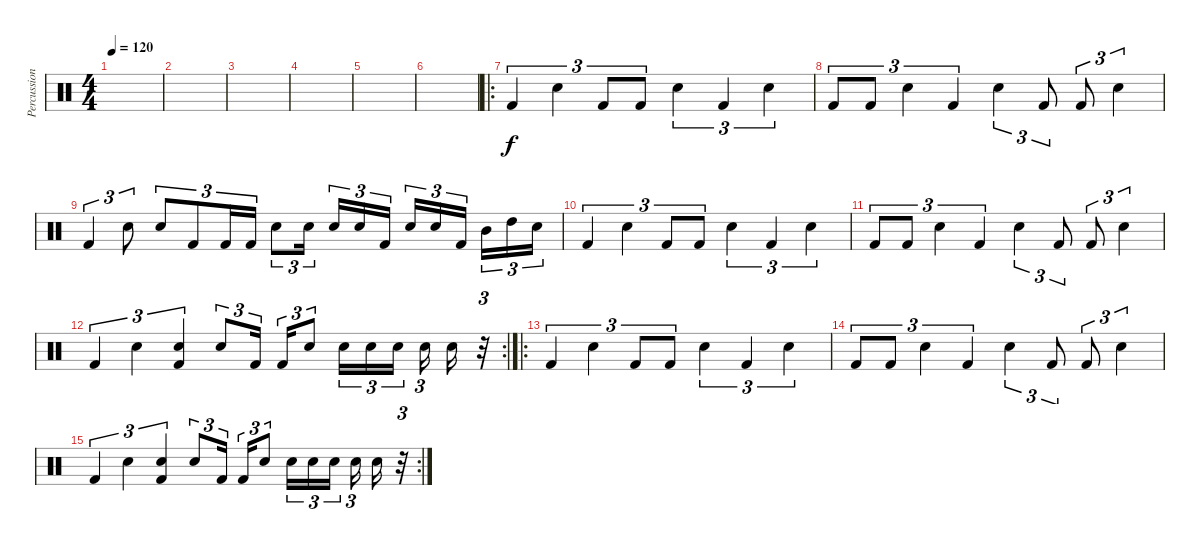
\track ("Percussion" "Percussion") {instrument percussion}
\staff {score}
\articulation defaults
\ts (4 4)
\tempo 120
\clef neutral
\ks c
|
|
|
|
|
|
\ro "Kick (hit) 2".4{tu (3 2)} "Electric Snare (hit)".4{tu (3 2)} "Kick (hit) 2".8{tu (3 2)} "Kick (hit) 2".8{tu (3 2)} "Electric Snare (hit)".4{tu (3 2)} "Kick (hit) 2".4{tu (3 2)} "Electric Snare (hit)".4{tu (3 2)}
|
"Kick (hit) 2".8{tu (3 2)} "Kick (hit) 2".8{tu (3 2)} "Electric Snare (hit)".4{tu (3 2)} "Kick (hit) 2".4{tu (3 2)} "Electric Snare (hit)".4{tu (3 2)} "Kick (hit) 2".8{tu (3 2)} "Kick (hit) 2".8{tu (3 2)} "Electric Snare (hit)".4{tu (3 2)} |
"Kick (hit) 2".4{tu (3 2)} "Electric Snare (hit)".8{tu (3 2)} "Electric Snare (hit)".8{tu (3 2)} "Kick (hit) 2".8{tu (3 2)} "Kick (hit) 2".16{tu (3 2)} "Kick (hit) 2".16{tu (3 2)} "Electric Snare (hit)".8{tu (3 2)} "Electric Snare (hit)".16{tu (3 2)} "Electric Snare (hit)".16{tu (3 2)} "Electric Snare (hit)".16{tu (3 2)} "Kick (hit) 2".16{tu (3 2)} "Electric Snare (hit)".16{tu (3 2)} "Electric Snare (hit)".16{tu (3 2)} "Kick (hit) 2".16{tu (3 2)} "Mid Tom (hit)".16{tu (3 2)} "High Tom (hit)".16{tu (3 2)} "Electric Snare (hit)".16{tu (3 2)} |
"Kick (hit) 2".4{tu (3 2)} "Electric Snare (hit)".4{tu (3 2)} "Kick (hit) 2".8{tu (3 2)} "Kick (hit) 2".8{tu (3 2)} "Electric Snare (hit)".4{tu (3 2)} "Kick (hit) 2".4{tu (3 2)} "Electric Snare (hit)".4{tu (3 2)} |
"Kick (hit) 2".8{tu (3 2)} "Kick (hit) 2".8{tu (3 2)} "Electric Snare (hit)".4{tu (3 2)} "Kick (hit) 2".4{tu (3 2)} "Electric Snare (hit)".4{tu (3 2)} "Kick (hit) 2".8{tu (3 2)} "Kick (hit) 2".8{tu (3 2)} "Electric Snare (hit)".4{tu (3 2)} |
\rc 2 "Kick (hit) 2".4{tu (3 2)} "Electric Snare (hit)".4{tu (3 2)}
("Electric Snare (hit)" "Kick (hit) 2").4{tu (3 2)} "Electric Snare (hit)".8{tu (3 2)} "Kick (hit) 2".16{tu (3 2)} "Kick (hit) 2".16{tu (3 2)} "Electric Snare (hit)".8{tu (3 2)} "Electric Snare (hit)".16{tu (3 2)} "Electric Snare (hit)".16{tu (3 2)} "Electric Snare (hit)".16{tu (3 2)} "Electric Snare (hit)".16{tu (3 2)} "Electric Snare (hit)".16 r.32{tu (3 2)} |
\ro "Kick (hit) 2".4{tu (3 2)} "Electric Snare (hit)".4{tu (3 2)} "Kick (hit) 2".8{tu (3 2)} "Kick (hit) 2".8{tu (3 2)} "Electric Snare (hit)".4{tu (3 2)} "Kick (hit) 2".4{tu (3 2)} "Electric Snare (hit)".4{tu (3 2)}
|
"Kick (hit) 2".8{tu (3 2)} "Kick (hit) 2".8{tu (3 2)} "Electric Snare (hit)".4{tu (3 2)} "Kick (hit) 2".4{tu (3 2)} "Electric Snare (hit)".4{tu (3 2)} "Kick (hit) 2".8{tu (3 2)} "Kick (hit) 2".8{tu (3 2)} "Electric Snare (hit)".4{tu (3 2)} |
\rc 2 "Kick (hit) 2".4{tu (3 2)} "Electric Snare (hit)".4{tu (3 2)}
("Electric Snare (hit)" "Kick (hit) 2").4{tu (3 2)} "Electric Snare (hit)".8{tu (3 2)} "Kick (hit) 2".16{tu (3 2)} "Kick (hit) 2".16{tu (3 2)} "Electric Snare (hit)".8{tu (3 2)} "Electric Snare (hit)".16{tu (3 2)} "Electric Snare (hit)".16{tu (3 2)} "Electric Snare (hit)".16{tu (3 2)} "Electric Snare (hit)".16{tu (3 2)} "Electric Snare (hit)".16 r.32{tu (3 2)}
